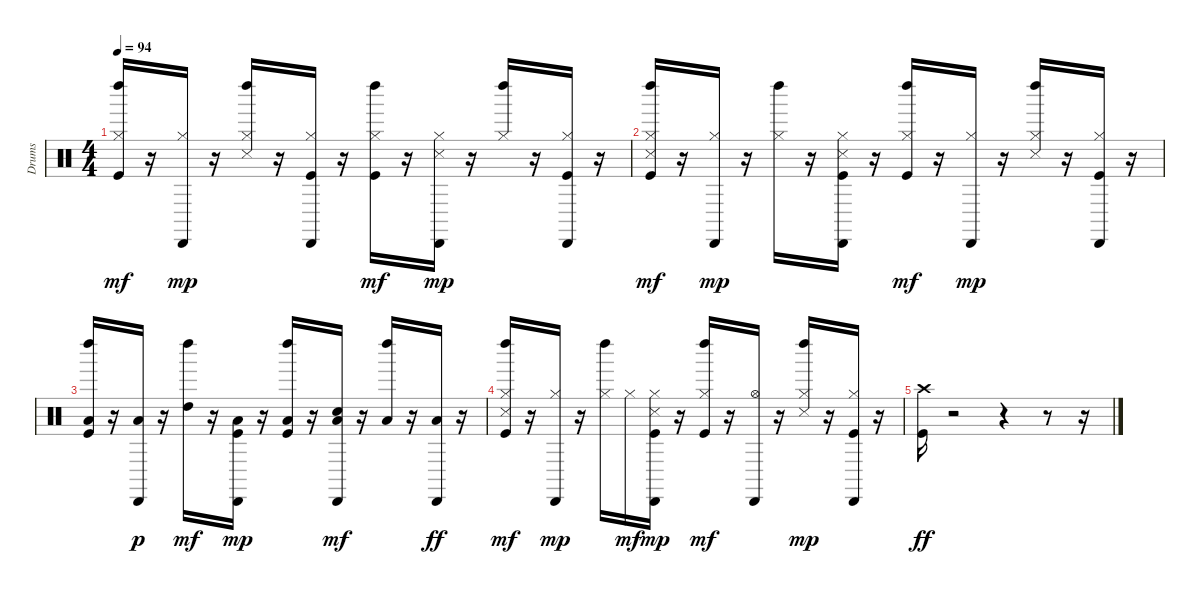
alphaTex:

\track ("Drums" "Drums") {instrument percussion}
\staff {score}
\articulation defaults
\ts (4 4)
\tempo 94
\clef neutral
\ks c
("Left Maraca (hit)" "Hi-Hat (closed)" "Kick (hit)").16{dy mf} r.16 ("Cabasa (hit)" "Hi-Hat (closed)").16{dy mp} r.16 ("Left Maraca (hit)" "Hi-Hat (closed)" "Snare (side stick) 3").16 r.16 ("Cabasa (hit)" "Hi-Hat (closed)" "Kick (hit)").16 r.16 ("Left Maraca (hit)" "Hi-Hat (closed)" "Kick (hit)").16{dy mf} r.16 ("Cabasa (hit)" "Hi-Hat (closed)" "Snare (side stick) 3").16{dy mp} r.16 ("Left Maraca (hit)" "Hi-Hat (closed)").16 r.16 ("Cabasa (hit)" "Hi-Hat (closed)" "Kick (hit)").16 r.16 |
("Left Maraca (hit)" "Hi-Hat (closed)" "Snare (side stick) 3" "Kick (hit)").16{dy mf} r.16 ("Cabasa (hit)" "Hi-Hat (closed)").16{dy mp} r.16 ("Left Maraca (hit)" "Hi-Hat (closed)").16 r.16 ("Cabasa (hit)" "Hi-Hat (closed)" "Snare (side stick) 3" "Kick (hit)").16 r.16 ("Left Maraca (hit)" "Hi-Hat (closed)" "Kick (hit)").16{dy mf} r.16 ("Cabasa (hit)" "Hi-Hat (closed)").16{dy mp} r.16 ("Left Maraca (hit)" "Hi-Hat (closed)" "Snare (side stick) 3").16 r.16 ("Cabasa (hit)" "Hi-Hat (closed)" "Kick (hit)").16 r.16 |
("Left Maraca (hit)" "Low Tom (hit)" "Kick (hit)").16 r.16 ("Cabasa (hit)" "Low Tom (hit)").16{dy p} r.16 ("Left Maraca (hit)" "High Tom (hit)").16{dy mf} r.16 ("Cabasa (hit)" "Low Tom (hit)" "Kick (hit)").16{dy mp} r.16 ("Left Maraca (hit)" "Low Tom (hit)" "Kick (hit)").16 r.16 ("Cabasa (hit)" "Low Tom (hit)" "Snare (hit) 2").16{dy mf} r.16 ("Left Maraca (hit)" "Low Floor Tom (hit)").16 r.16 ("Cabasa (hit)" "Low Floor Tom (hit)").16{dy ff} r.16 |
("Left Maraca (hit)" "Hi-Hat (closed)" "Snare (side stick) 3" "Kick (hit)").16{dy mf} r.16 ("Cabasa (hit)" "Hi-Hat (closed)").16{dy mp} r.16 ("Left Maraca (hit)" "Hi-Hat (closed)").16 "Hi-Hat (closed)".16{dy mf} ("Cabasa (hit)" "Hi-Hat (closed)" "Snare (side stick) 3" "Kick (hit)").16{dy mp} r.16 ("Left Maraca (hit)" "Hi-Hat (closed)" "Kick (hit)").16{dy mf} r.16 ("Cabasa (hit)" "Hi-Hat (open)").16 r.16 ("Left Maraca (hit)" "Hi-Hat (closed)" "Snare (side stick) 3").16{dy mp} r.16 ("Cabasa (hit)" "Hi-Hat (closed)" "Kick (hit)").16 r.16 |
("Crash high (hit)" "Kick (hit)").16{dy ff} r.2 r.4 r.8 r.16
